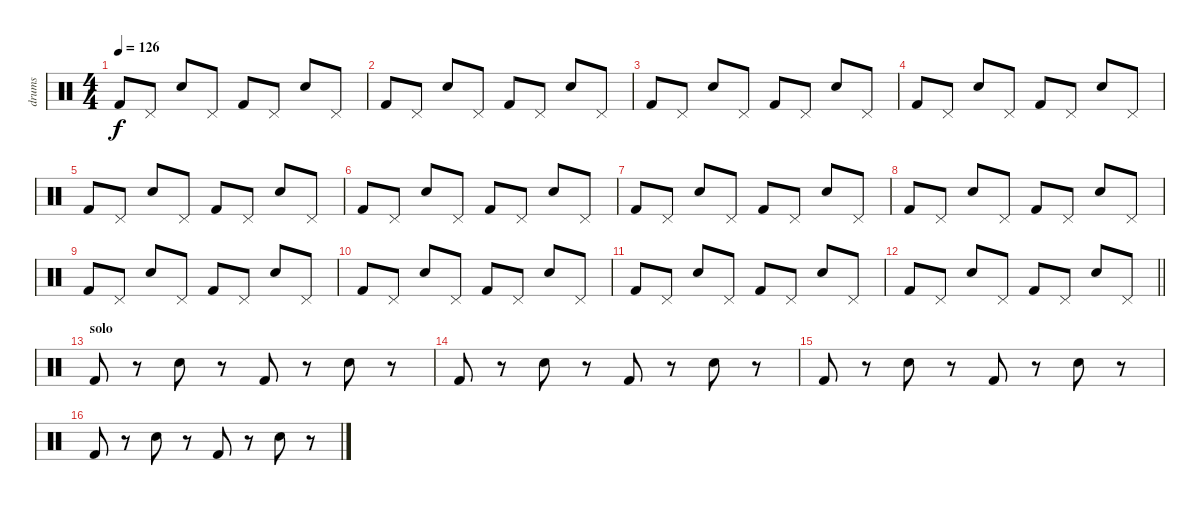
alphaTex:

\track ("drums" "drums") {instrument percussion}
\staff {score}
\articulation defaults
\ts (4 4)
\tempo 126
\clef neutral
\ks c "Kick (hit) 2".8{dy f} "Pedal Hi-Hat (hit)".8 "Hand Clap (hit)".8 "Pedal Hi-Hat (hit)".8 "Kick (hit) 2".8 "Pedal Hi-Hat (hit)".8 "Hand Clap (hit)".8 "Pedal Hi-Hat (hit)".8
|
"Kick (hit) 2".8 "Pedal Hi-Hat (hit)".8 "Hand Clap (hit)".8 "Pedal Hi-Hat (hit)".8 "Kick (hit) 2".8 "Pedal Hi-Hat (hit)".8 "Hand Clap (hit)".8 "Pedal Hi-Hat (hit)".8 |
"Kick (hit) 2".8 "Pedal Hi-Hat (hit)".8 "Hand Clap (hit)".8 "Pedal Hi-Hat (hit)".8 "Kick (hit) 2".8 "Pedal Hi-Hat (hit)".8 "Hand Clap (hit)".8 "Pedal Hi-Hat (hit)".8 |
"Kick (hit) 2".8 "Pedal Hi-Hat (hit)".8 "Hand Clap (hit)".8 "Pedal Hi-Hat (hit)".8 "Kick (hit) 2".8 "Pedal Hi-Hat (hit)".8 "Hand Clap (hit)".8 "Pedal Hi-Hat (hit)".8 |
"Kick (hit) 2".8 "Pedal Hi-Hat (hit)".8 "Hand Clap (hit)".8 "Pedal Hi-Hat (hit)".8 "Kick (hit) 2".8 "Pedal Hi-Hat (hit)".8 "Hand Clap (hit)".8 "Pedal Hi-Hat (hit)".8 |
"Kick (hit) 2".8 "Pedal Hi-Hat (hit)".8 "Hand Clap (hit)".8 "Pedal Hi-Hat (hit)".8 "Kick (hit) 2".8 "Pedal Hi-Hat (hit)".8 "Hand Clap (hit)".8 "Pedal Hi-Hat (hit)".8 |
"Kick (hit) 2".8 "Pedal Hi-Hat (hit)".8 "Hand Clap (hit)".8 "Pedal Hi-Hat (hit)".8 "Kick (hit) 2".8 "Pedal Hi-Hat (hit)".8 "Hand Clap (hit)".8 "Pedal Hi-Hat (hit)".8 |
"Kick (hit) 2".8 "Pedal Hi-Hat (hit)".8 "Hand Clap (hit)".8 "Pedal Hi-Hat (hit)".8 "Kick (hit) 2".8 "Pedal Hi-Hat (hit)".8 "Hand Clap (hit)".8 "Pedal Hi-Hat (hit)".8 |
"Kick (hit) 2".8 "Pedal Hi-Hat (hit)".8 "Hand Clap (hit)".8 "Pedal Hi-Hat (hit)".8 "Kick (hit) 2".8 "Pedal Hi-Hat (hit)".8 "Hand Clap (hit)".8 "Pedal Hi-Hat (hit)".8 |
"Kick (hit) 2".8 "Pedal Hi-Hat (hit)".8 "Hand Clap (hit)".8 "Pedal Hi-Hat (hit)".8 "Kick (hit) 2".8 "Pedal Hi-Hat (hit)".8 "Hand Clap (hit)".8 "Pedal Hi-Hat (hit)".8 |
"Kick (hit) 2".8 "Pedal Hi-Hat (hit)".8 "Hand Clap (hit)".8 "Pedal Hi-Hat (hit)".8 "Kick (hit) 2".8 "Pedal Hi-Hat (hit)".8 "Hand Clap (hit)".8 "Pedal Hi-Hat (hit)".8 |
\barLineRight lightlight "Kick (hit) 2".8 "Pedal Hi-Hat (hit)".8 "Hand Clap (hit)".8 "Pedal Hi-Hat (hit)".8 "Kick (hit) 2".8 "Pedal Hi-Hat (hit)".8 "Hand Clap (hit)".8 "Pedal Hi-Hat (hit)".8
|
\section ("" "solo")
"Kick (hit) 2".8 r.8 "Hand Clap (hit)".8 r.8 "Kick (hit) 2".8 r.8 "Hand Clap (hit)".8 r.8 |
"Kick (hit) 2".8 r.8 "Hand Clap (hit)".8 r.8 "Kick (hit) 2".8 r.8 "Hand Clap (hit)".8 r.8 |
"Kick (hit) 2".8 r.8 "Hand Clap (hit)".8 r.8 "Kick (hit) 2".8 r.8 "Hand Clap (hit)".8 r.8 |
"Kick (hit) 2".8 r.8 "Hand Clap (hit)".8 r.8 "Kick (hit) 2".8 r.8 "Hand Clap (hit)".8 r.8
